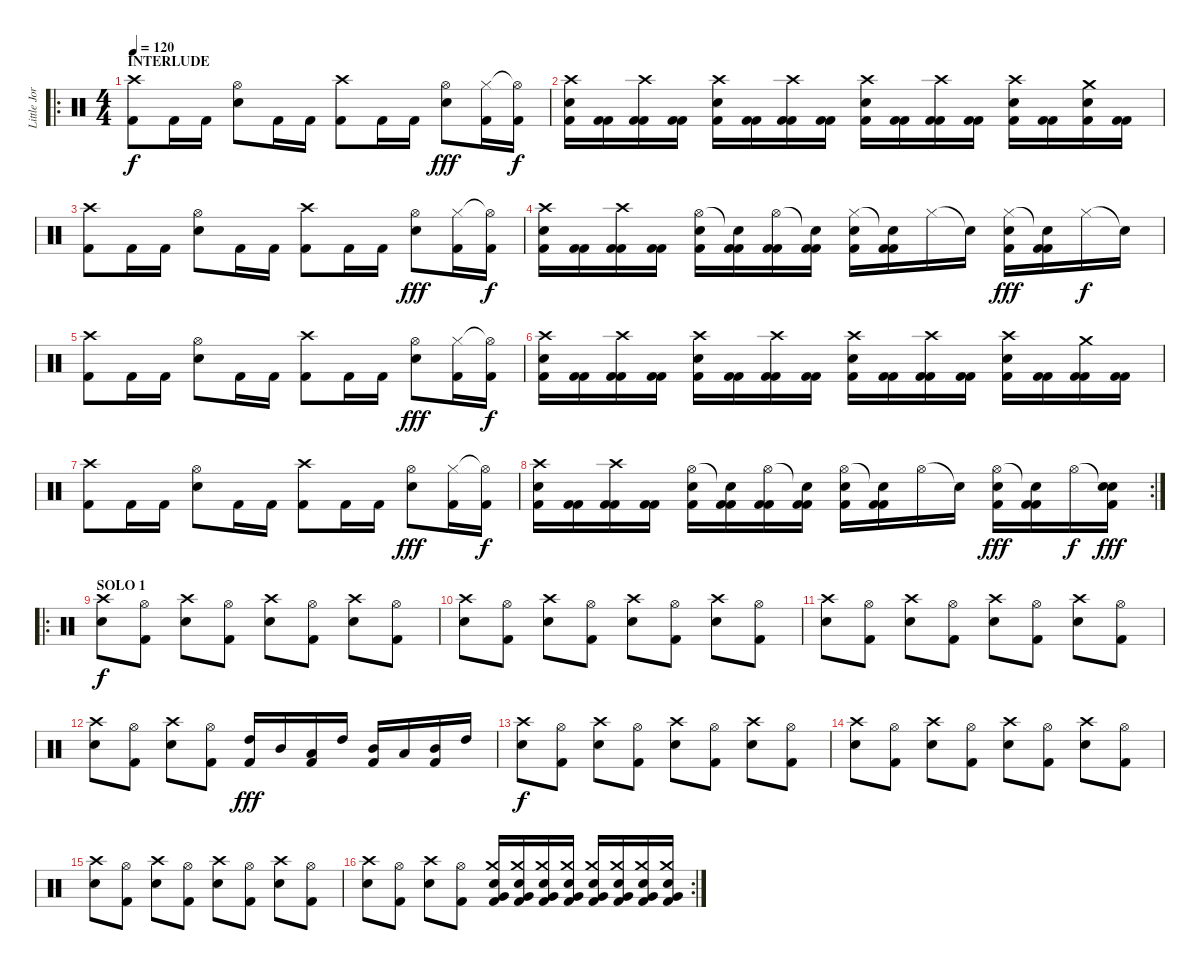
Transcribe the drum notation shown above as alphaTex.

\track ("Little Jordison" "Little Jor") {instrument percussion}
\staff {score}
\articulation defaults
\ro
\ts (4 4)
\section ("" "INTERLUDE")
\tempo 120
\clef neutral
\ks c
("Crash high (hit)" "Kick (hit) 2").8{dy f} "Kick (hit) 2".16 "Kick (hit) 2".16 ("Hi-Hat (open)" "Electric Snare (hit)").8 "Kick (hit) 2".16 "Kick (hit) 2".16 ("Crash high (hit)" "Kick (hit) 2").8 "Kick (hit) 2".16 "Kick (hit) 2".16 ("Hi-Hat (open)" "Electric Snare (hit)").8{dy fff} ("Hi-Hat (closed)" "Kick (hit) 2").16 ("Hi-Hat (open)"{t} "Kick (hit) 2").16{dy f} |
("Kick (hit) 2" "Crash high (hit)" "Electric Snare (hit)").16 ("Kick (hit) 2" "Kick (hit) 2").16 ("Kick (hit) 2" "Crash high (hit)" "Kick (hit) 2").16 ("Kick (hit) 2" "Kick (hit) 2").16 ("Kick (hit) 2" "Crash high (hit)" "Electric Snare (hit)").16 ("Kick (hit) 2" "Kick (hit) 2").16 ("Kick (hit) 2" "Crash high (hit)" "Kick (hit) 2").16 ("Kick (hit) 2" "Kick (hit) 2").16 ("Kick (hit) 2" "Crash high (hit)" "Electric Snare (hit)").16 ("Kick (hit) 2" "Kick (hit) 2").16 ("Kick (hit) 2" "Crash high (hit)" "Kick (hit) 2").16 ("Kick (hit) 2" "Kick (hit) 2").16 ("Kick (hit) 2" "Crash high (hit)" "Electric Snare (hit)").16 ("Kick (hit) 2" "Kick (hit) 2").16 ("Kick (hit) 2" "Crash medium (hit)" "Electric Snare (hit)").16 ("Kick (hit) 2" "Kick (hit) 2").16 |
("Crash high (hit)" "Kick (hit) 2").8 "Kick (hit) 2".16 "Kick (hit) 2".16 ("Hi-Hat (open)" "Electric Snare (hit)").8 "Kick (hit) 2".16 "Kick (hit) 2".16 ("Crash high (hit)" "Kick (hit) 2").8 "Kick (hit) 2".16 "Kick (hit) 2".16 ("Hi-Hat (open)" "Electric Snare (hit)").8{dy fff} ("Hi-Hat (closed)" "Kick (hit) 2").16 ("Hi-Hat (open)"{t} "Kick (hit) 2").16{dy f} |
("Kick (hit) 2" "Crash high (hit)" "Electric Snare (hit)").16 ("Kick (hit) 2" "Kick (hit) 2").16 ("Kick (hit) 2" "Crash high (hit)" "Kick (hit) 2").16 ("Kick (hit) 2" "Kick (hit) 2").16 ("Kick (hit) 2" "Hi-Hat (open)" "Electric Snare (hit)").16 ("Kick (hit) 2" "Snare (hit)"{t} "Kick (hit) 2").16 ("Kick (hit) 2" "Hi-Hat (open)" "Kick (hit) 2").16 ("Kick (hit) 2" "Snare (hit)"{t} "Kick (hit) 2").16 ("Kick (hit) 2" "Hi-Hat (closed)" "Electric Snare (hit)").16 ("Kick (hit) 2" "Snare (hit)"{t} "Kick (hit) 2").16 "Hi-Hat (closed)".16 "Snare (hit)"{t}.16 ("Kick (hit) 2" "Hi-Hat (closed)" "Electric Snare (hit)").16{dy fff} ("Kick (hit) 2" "Snare (hit)"{t} "Kick (hit) 2").16 "Hi-Hat (closed)".16{dy f} "Snare (hit)"{t}.16 |
("Crash high (hit)" "Kick (hit) 2").8 "Kick (hit) 2".16 "Kick (hit) 2".16 ("Hi-Hat (open)" "Electric Snare (hit)").8 "Kick (hit) 2".16 "Kick (hit) 2".16 ("Crash high (hit)" "Kick (hit) 2").8 "Kick (hit) 2".16 "Kick (hit) 2".16 ("Hi-Hat (open)" "Electric Snare (hit)").8{dy fff} ("Hi-Hat (closed)" "Kick (hit) 2").16 ("Hi-Hat (open)"{t} "Kick (hit) 2").16{dy f} |
("Kick (hit) 2" "Crash high (hit)" "Electric Snare (hit)").16 ("Kick (hit) 2" "Kick (hit) 2").16 ("Kick (hit) 2" "Crash high (hit)" "Kick (hit) 2").16 ("Kick (hit) 2" "Kick (hit) 2").16 ("Kick (hit) 2" "Crash high (hit)" "Electric Snare (hit)").16 ("Kick (hit) 2" "Kick (hit) 2").16 ("Kick (hit) 2" "Crash high (hit)" "Kick (hit) 2").16 ("Kick (hit) 2" "Kick (hit) 2").16 ("Kick (hit) 2" "Crash high (hit)" "Electric Snare (hit)").16 ("Kick (hit) 2" "Kick (hit) 2").16 ("Kick (hit) 2" "Crash high (hit)" "Kick (hit) 2").16 ("Kick (hit) 2" "Kick (hit) 2").16 ("Kick (hit) 2" "Crash high (hit)" "Electric Snare (hit)").16 ("Kick (hit) 2" "Kick (hit) 2").16 ("Kick (hit) 2" "Crash medium (hit)" "Kick (hit) 2").16 ("Kick (hit) 2" "Kick (hit) 2").16 |
("Crash high (hit)" "Kick (hit) 2").8 "Kick (hit) 2".16 "Kick (hit) 2".16 ("Hi-Hat (open)" "Electric Snare (hit)").8 "Kick (hit) 2".16 "Kick (hit) 2".16 ("Crash high (hit)" "Kick (hit) 2").8 "Kick (hit) 2".16 "Kick (hit) 2".16 ("Hi-Hat (open)" "Electric Snare (hit)").8{dy fff} ("Hi-Hat (closed)" "Kick (hit) 2").16 ("Hi-Hat (open)"{t} "Kick (hit) 2").16{dy f} |
\rc 2
("Kick (hit) 2" "Crash high (hit)" "Electric Snare (hit)").16 ("Kick (hit) 2" "Kick (hit) 2").16 ("Kick (hit) 2" "Crash high (hit)" "Kick (hit) 2").16 ("Kick (hit) 2" "Kick (hit) 2").16 ("Kick (hit) 2" "Hi-Hat (open)" "Electric Snare (hit)").16 ("Kick (hit) 2" "Snare (hit)"{t} "Kick (hit) 2").16 ("Kick (hit) 2" "Hi-Hat (open)" "Kick (hit) 2").16 ("Kick (hit) 2" "Snare (hit)"{t} "Kick (hit) 2").16 ("Kick (hit) 2" "Hi-Hat (open)" "Electric Snare (hit)").16 ("Kick (hit) 2" "Snare (hit)"{t} "Kick (hit) 2").16 "Hi-Hat (open)".16 "Snare (hit)"{t}.16 ("Kick (hit) 2" "Hi-Hat (open)" "Electric Snare (hit)").16{dy fff} ("Kick (hit) 2" "Snare (hit)"{t} "Kick (hit) 2").16 "Hi-Hat (open)".16{dy f} ("Snare (hit)"{t} "Kick (hit) 2" "Electric Snare (hit)").16{dy fff} |
\ro
\section ("" "SOLO 1")
("Crash high (hit)" "Electric Snare (hit)").8{dy f volume 13} ("Hi-Hat (open)" "Kick (hit) 2").8 ("Crash high (hit)" "Electric Snare (hit)").8 ("Hi-Hat (open)" "Kick (hit) 2").8 ("Crash high (hit)" "Electric Snare (hit)").8 ("Hi-Hat (open)" "Kick (hit) 2").8 ("Crash high (hit)" "Electric Snare (hit)").8 ("Hi-Hat (open)" "Kick (hit) 2").8 |
("Crash high (hit)" "Electric Snare (hit)").8 ("Hi-Hat (open)" "Kick (hit) 2").8 ("Crash high (hit)" "Electric Snare (hit)").8 ("Hi-Hat (open)" "Kick (hit) 2").8 ("Crash high (hit)" "Electric Snare (hit)").8 ("Hi-Hat (open)" "Kick (hit) 2").8 ("Crash high (hit)" "Electric Snare (hit)").8 ("Hi-Hat (open)" "Kick (hit) 2").8 |
("Crash high (hit)" "Electric Snare (hit)").8 ("Hi-Hat (open)" "Kick (hit) 2").8 ("Crash high (hit)" "Electric Snare (hit)").8 ("Hi-Hat (open)" "Kick (hit) 2").8 ("Crash high (hit)" "Electric Snare (hit)").8 ("Hi-Hat (open)" "Kick (hit) 2").8 ("Crash high (hit)" "Electric Snare (hit)").8 ("Hi-Hat (open)" "Kick (hit) 2").8 |
("Crash high (hit)" "Electric Snare (hit)").8 ("Hi-Hat (open)" "Kick (hit) 2").8 ("Crash high (hit)" "Electric Snare (hit)").8 ("Hi-Hat (open)" "Kick (hit) 2").8 ("High Tom (hit)" "Kick (hit) 2").16{dy fff} "Mid Tom (hit)".16 ("Low Tom (hit)" "Kick (hit) 2").16 "High Tom (hit)".16 ("Mid Tom (hit)" "Kick (hit) 2").16 "Low Tom (hit)".16 ("Mid Tom (hit)" "Kick (hit) 2").16 "High Tom (hit)".16 |
("Crash high (hit)" "Electric Snare (hit)").8{dy f} ("Hi-Hat (open)" "Kick (hit) 2").8 ("Crash high (hit)" "Electric Snare (hit)").8 ("Hi-Hat (open)" "Kick (hit) 2").8 ("Crash high (hit)" "Electric Snare (hit)").8 ("Hi-Hat (open)" "Kick (hit) 2").8 ("Crash high (hit)" "Electric Snare (hit)").8 ("Hi-Hat (open)" "Kick (hit) 2").8 |
("Crash high (hit)" "Electric Snare (hit)").8 ("Hi-Hat (open)" "Kick (hit) 2").8 ("Crash high (hit)" "Electric Snare (hit)").8 ("Hi-Hat (open)" "Kick (hit) 2").8 ("Crash high (hit)" "Electric Snare (hit)").8 ("Hi-Hat (open)" "Kick (hit) 2").8 ("Crash high (hit)" "Electric Snare (hit)").8 ("Hi-Hat (open)" "Kick (hit) 2").8 |
("Crash high (hit)" "Electric Snare (hit)").8 ("Hi-Hat (open)" "Kick (hit) 2").8 ("Crash high (hit)" "Electric Snare (hit)").8 ("Hi-Hat (open)" "Kick (hit) 2").8 ("Crash high (hit)" "Electric Snare (hit)").8 ("Hi-Hat (open)" "Kick (hit) 2").8 ("Crash high (hit)" "Electric Snare (hit)").8 ("Hi-Hat (open)" "Kick (hit) 2").8 |
\rc 2
("Crash high (hit)" "Electric Snare (hit)").8 ("Hi-Hat (open)" "Kick (hit) 2").8 ("Crash high (hit)" "Electric Snare (hit)").8 ("Hi-Hat (open)" "Kick (hit) 2").8 ("Crash medium (hit)" "Very Low Tom (hit)" "Electric Snare (hit)" "Kick (hit) 2").16 ("Crash medium (hit)" "Very Low Tom (hit)" "Electric Snare (hit)" "Kick (hit) 2").16 ("Crash medium (hit)" "Very Low Tom (hit)" "Electric Snare (hit)" "Kick (hit) 2").16 ("Crash medium (hit)" "Very Low Tom (hit)" "Electric Snare (hit)" "Kick (hit) 2").16 ("Crash medium (hit)" "Very Low Tom (hit)" "Electric Snare (hit)" "Kick (hit) 2").16 ("Crash medium (hit)" "Very Low Tom (hit)" "Electric Snare (hit)" "Kick (hit) 2").16 ("Crash medium (hit)" "Very Low Tom (hit)" "Electric Snare (hit)" "Kick (hit) 2").16 ("Crash medium (hit)" "Very Low Tom (hit)" "Electric Snare (hit)" "Kick (hit) 2").16
